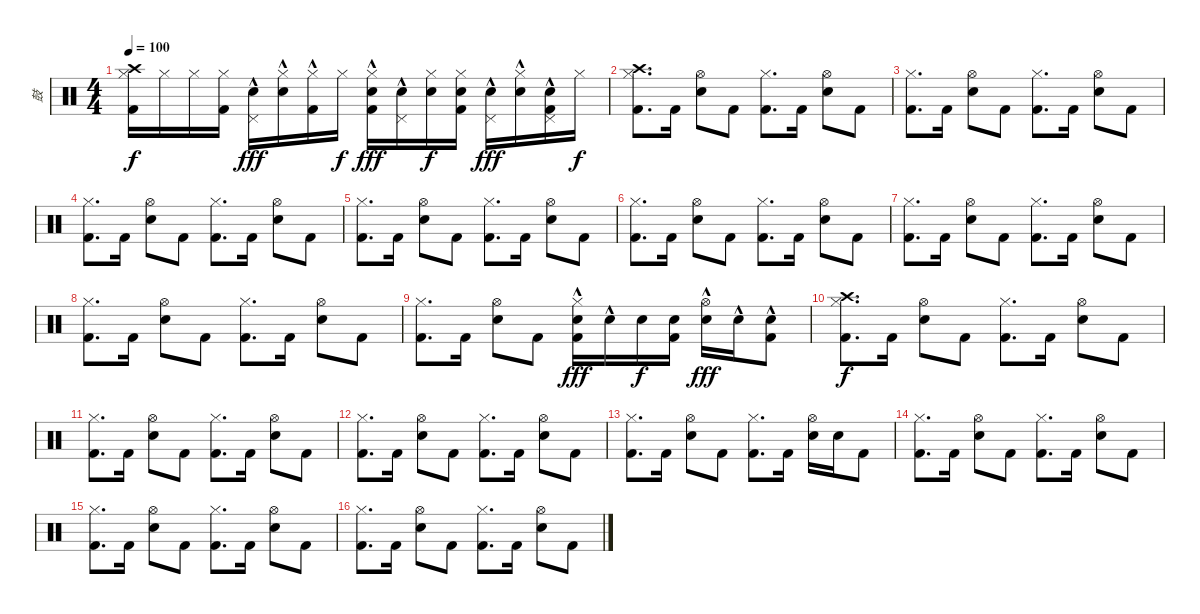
\track ("鼓" "鼓") {instrument percussion}
\staff {score}
\articulation defaults
\ts (4 4)
\tempo 100
\clef neutral
\ks c
("Crash high (hit)" "Hi-Hat (closed)" "Kick (hit) 2").16{dy f} "Hi-Hat (closed)".16 "Hi-Hat (closed)".16 ("Hi-Hat (closed)" "Kick (hit) 2").16 ("Pedal Hi-Hat (hit)" "Electric Snare (hit)"{hac}).16{dy fff} ("Hi-Hat (closed)" "Electric Snare (hit)"{hac}).16 ("Hi-Hat (closed)" "Kick (hit) 2"{hac}).16 "Hi-Hat (closed)".16{dy f} ("Hi-Hat (closed)" "Electric Snare (hit)"{hac} "Kick (hit) 2").16{dy fff} ("Pedal Hi-Hat (hit)" "Electric Snare (hit)"{hac}).16 ("Hi-Hat (closed)" "Snare (hit) 2").16{dy f} ("Hi-Hat (closed)" "Electric Snare (hit)" "Kick (hit) 2").16 ("Pedal Hi-Hat (hit)" "Electric Snare (hit)"{hac}).16{dy fff} ("Hi-Hat (closed)" "Snare (hit) 2"{hac}).16 ("Pedal Hi-Hat (hit)" "Snare (hit) 2"{hac} "Kick (hit) 2").16 "Hi-Hat (closed)".16{dy f} |
("Crash high (hit)" "Hi-Hat (closed)" "Kick (hit) 2").8{d} "Kick (hit) 2".16 ("Hi-Hat (open)" "Electric Snare (hit)").8 "Kick (hit) 2".8 ("Hi-Hat (closed)" "Kick (hit) 2").8{d} "Kick (hit) 2".16 ("Hi-Hat (open)" "Electric Snare (hit)").8 "Kick (hit) 2".8 |
("Hi-Hat (closed)" "Kick (hit) 2").8{d} "Kick (hit) 2".16 ("Hi-Hat (open)" "Electric Snare (hit)").8 "Kick (hit) 2".8 ("Hi-Hat (closed)" "Kick (hit) 2").8{d} "Kick (hit) 2".16 ("Hi-Hat (open)" "Electric Snare (hit)").8 "Kick (hit) 2".8 |
("Hi-Hat (closed)" "Kick (hit) 2").8{d} "Kick (hit) 2".16 ("Hi-Hat (open)" "Electric Snare (hit)").8 "Kick (hit) 2".8 ("Hi-Hat (closed)" "Kick (hit) 2").8{d} "Kick (hit) 2".16 ("Hi-Hat (open)" "Electric Snare (hit)").8 "Kick (hit) 2".8 |
("Hi-Hat (closed)" "Kick (hit) 2").8{d} "Kick (hit) 2".16 ("Hi-Hat (open)" "Electric Snare (hit)").8 "Kick (hit) 2".8 ("Hi-Hat (closed)" "Kick (hit) 2").8{d} "Kick (hit) 2".16 ("Hi-Hat (open)" "Electric Snare (hit)").8 "Kick (hit) 2".8 |
("Hi-Hat (closed)" "Kick (hit) 2").8{d} "Kick (hit) 2".16 ("Hi-Hat (open)" "Electric Snare (hit)").8 "Kick (hit) 2".8 ("Hi-Hat (closed)" "Kick (hit) 2").8{d} "Kick (hit) 2".16 ("Hi-Hat (open)" "Electric Snare (hit)").8 "Kick (hit) 2".8 |
("Hi-Hat (closed)" "Kick (hit) 2").8{d} "Kick (hit) 2".16 ("Hi-Hat (open)" "Electric Snare (hit)").8 "Kick (hit) 2".8 ("Hi-Hat (closed)" "Kick (hit) 2").8{d} "Kick (hit) 2".16 ("Hi-Hat (open)" "Electric Snare (hit)").8 "Kick (hit) 2".8 |
("Hi-Hat (closed)" "Kick (hit) 2").8{d} "Kick (hit) 2".16 ("Hi-Hat (open)" "Electric Snare (hit)").8 "Kick (hit) 2".8 ("Hi-Hat (closed)" "Kick (hit) 2").8{d} "Kick (hit) 2".16 ("Hi-Hat (open)" "Electric Snare (hit)").8 "Kick (hit) 2".8 |
("Hi-Hat (closed)" "Kick (hit) 2").8{d} "Kick (hit) 2".16 ("Hi-Hat (open)" "Electric Snare (hit)").8 "Kick (hit) 2".8 ("Hi-Hat (closed)" "Electric Snare (hit)"{hac} "Kick (hit) 2").16{dy fff} "Electric Snare (hit)"{hac}.16 "Snare (hit) 2".16{dy f} ("Electric Snare (hit)" "Kick (hit) 2").16 ("Hi-Hat (open)" "Electric Snare (hit)"{hac}).16{dy fff} "Snare (hit) 2"{hac}.16 ("Snare (hit) 2"{hac} "Kick (hit) 2").8 |
("Crash high (hit)" "Hi-Hat (closed)" "Kick (hit) 2").8{d dy f} "Kick (hit) 2".16 ("Hi-Hat (open)" "Electric Snare (hit)").8 "Kick (hit) 2".8 ("Hi-Hat (closed)" "Kick (hit) 2").8{d} "Kick (hit) 2".16 ("Hi-Hat (open)" "Electric Snare (hit)").8 "Kick (hit) 2".8 |
("Hi-Hat (closed)" "Kick (hit) 2").8{d} "Kick (hit) 2".16 ("Hi-Hat (open)" "Electric Snare (hit)").8 "Kick (hit) 2".8 ("Hi-Hat (closed)" "Kick (hit) 2").8{d} "Kick (hit) 2".16 ("Hi-Hat (open)" "Electric Snare (hit)").8 "Kick (hit) 2".8 |
("Hi-Hat (closed)" "Kick (hit) 2").8{d} "Kick (hit) 2".16 ("Hi-Hat (open)" "Electric Snare (hit)").8 "Kick (hit) 2".8 ("Hi-Hat (closed)" "Kick (hit) 2").8{d} "Kick (hit) 2".16 ("Hi-Hat (open)" "Electric Snare (hit)").8 "Kick (hit) 2".8 |
("Hi-Hat (closed)" "Kick (hit) 2").8{d} "Kick (hit) 2".16 ("Hi-Hat (open)" "Electric Snare (hit)").8 "Kick (hit) 2".8 ("Hi-Hat (closed)" "Kick (hit) 2").8{d} "Kick (hit) 2".16 ("Hi-Hat (open)" "Electric Snare (hit)").16 "Snare (hit) 2".16 "Kick (hit) 2".8 |
("Hi-Hat (closed)" "Kick (hit) 2").8{d} "Kick (hit) 2".16 ("Hi-Hat (open)" "Electric Snare (hit)").8 "Kick (hit) 2".8 ("Hi-Hat (closed)" "Kick (hit) 2").8{d} "Kick (hit) 2".16 ("Hi-Hat (open)" "Electric Snare (hit)").8 "Kick (hit) 2".8 |
("Hi-Hat (closed)" "Kick (hit) 2").8{d} "Kick (hit) 2".16 ("Hi-Hat (open)" "Electric Snare (hit)").8 "Kick (hit) 2".8 ("Hi-Hat (closed)" "Kick (hit) 2").8{d} "Kick (hit) 2".16 ("Hi-Hat (open)" "Electric Snare (hit)").8 "Kick (hit) 2".8 |
("Hi-Hat (closed)" "Kick (hit) 2").8{d} "Kick (hit) 2".16 ("Hi-Hat (open)" "Electric Snare (hit)").8 "Kick (hit) 2".8 ("Hi-Hat (closed)" "Kick (hit) 2").8{d} "Kick (hit) 2".16 ("Hi-Hat (open)" "Electric Snare (hit)").8 "Kick (hit) 2".8
